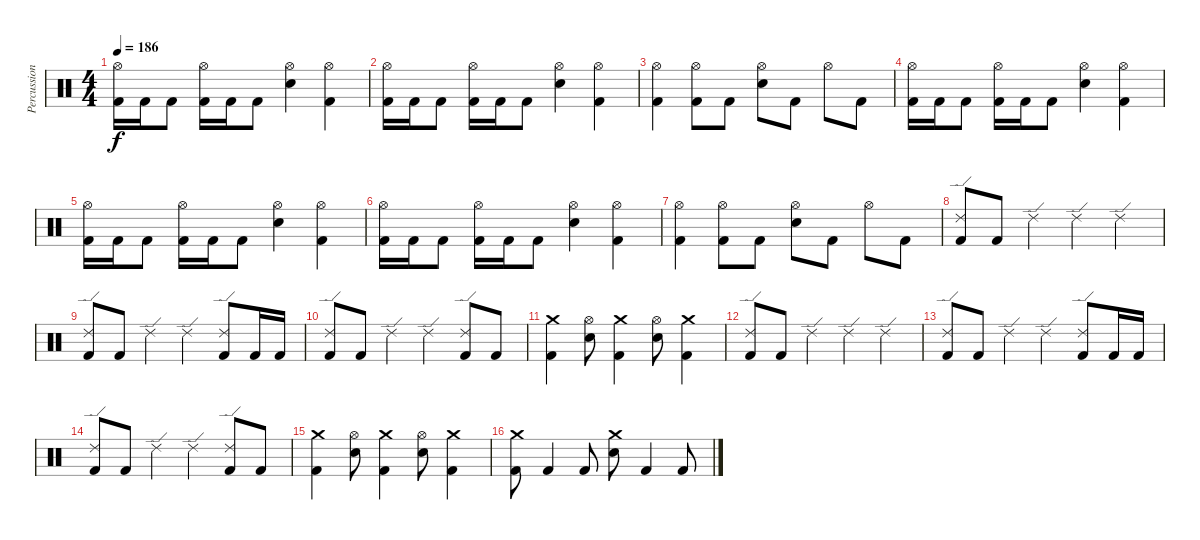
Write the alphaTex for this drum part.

\track ("Percussion" "Percussion") {instrument percussion}
\staff {score}
\articulation defaults
\ts (4 4)
\tempo 186
\clef neutral
\ks c
("Hi-Hat (open)" "Kick (hit) 2").16{dy f} "Kick (hit) 2".16 "Kick (hit) 2".8 ("Hi-Hat (open)" "Kick (hit) 2").16 "Kick (hit) 2".16 "Kick (hit) 2".8 ("Hi-Hat (open)" "Snare (hit) 2").4 ("Hi-Hat (open)" "Kick (hit) 2").4 |
("Hi-Hat (open)" "Kick (hit) 2").16 "Kick (hit) 2".16 "Kick (hit) 2".8 ("Hi-Hat (open)" "Kick (hit) 2").16 "Kick (hit) 2".16 "Kick (hit) 2".8 ("Hi-Hat (open)" "Snare (hit) 2").4 ("Hi-Hat (open)" "Kick (hit) 2").4 |
("Hi-Hat (open)" "Kick (hit) 2").4 ("Hi-Hat (open)" "Kick (hit) 2").8 "Kick (hit) 2".8 ("Hi-Hat (open)" "Snare (hit) 2").8 "Kick (hit) 2".8 "Hi-Hat (open)".8 "Kick (hit) 2".8 |
("Hi-Hat (open)" "Kick (hit) 2").16 "Kick (hit) 2".16 "Kick (hit) 2".8 ("Hi-Hat (open)" "Kick (hit) 2").16 "Kick (hit) 2".16 "Kick (hit) 2".8 ("Hi-Hat (open)" "Snare (hit) 2").4 ("Hi-Hat (open)" "Kick (hit) 2").4 |
("Hi-Hat (open)" "Kick (hit) 2").16 "Kick (hit) 2".16 "Kick (hit) 2".8 ("Hi-Hat (open)" "Kick (hit) 2").16 "Kick (hit) 2".16 "Kick (hit) 2".8 ("Hi-Hat (open)" "Snare (hit) 2").4 ("Hi-Hat (open)" "Kick (hit) 2").4 |
("Hi-Hat (open)" "Kick (hit) 2").16 "Kick (hit) 2".16 "Kick (hit) 2".8 ("Hi-Hat (open)" "Kick (hit) 2").16 "Kick (hit) 2".16 "Kick (hit) 2".8 ("Hi-Hat (open)" "Snare (hit) 2").4 ("Hi-Hat (open)" "Kick (hit) 2").4 |
("Hi-Hat (open)" "Kick (hit) 2").4 ("Hi-Hat (open)" "Kick (hit) 2").8 "Kick (hit) 2".8 ("Hi-Hat (open)" "Snare (hit) 2").8 "Kick (hit) 2".8 "Hi-Hat (open)".8 "Kick (hit) 2".8 |
("Ride (edge) 2" "Kick (hit) 2").8 "Kick (hit) 2".8 "Ride (edge) 2".4 "Ride (edge) 2".4 "Ride (edge) 2".4 |
("Ride (edge) 2" "Kick (hit) 2").8 "Kick (hit) 2".8 "Ride (edge) 2".4 "Ride (edge) 2".4 ("Ride (edge) 2" "Kick (hit) 2").8 "Kick (hit) 2".16 "Kick (hit) 2".16 |
("Ride (edge) 2" "Kick (hit) 2").8 "Kick (hit) 2".8 "Ride (edge) 2".4 "Ride (edge) 2".4 ("Ride (edge) 2" "Kick (hit) 2").8 "Kick (hit) 2".8 |
("Crash medium (hit)" "Kick (hit) 2").4 ("Hi-Hat (open)" "Snare (hit) 2").8 ("Crash medium (hit)" "Kick (hit) 2").4 ("Hi-Hat (open)" "Snare (hit) 2").8 ("Crash medium (hit)" "Kick (hit) 2").4 |
("Ride (edge) 2" "Kick (hit) 2").8 "Kick (hit) 2".8 "Ride (edge) 2".4 "Ride (edge) 2".4 "Ride (edge) 2".4 |
("Ride (edge) 2" "Kick (hit) 2").8 "Kick (hit) 2".8 "Ride (edge) 2".4 "Ride (edge) 2".4 ("Ride (edge) 2" "Kick (hit) 2").8 "Kick (hit) 2".16 "Kick (hit) 2".16 |
("Ride (edge) 2" "Kick (hit) 2").8 "Kick (hit) 2".8 "Ride (edge) 2".4 "Ride (edge) 2".4 ("Ride (edge) 2" "Kick (hit) 2").8 "Kick (hit) 2".8 |
("Crash medium (hit)" "Kick (hit) 2").4 ("Hi-Hat (open)" "Snare (hit) 2").8 ("Crash medium (hit)" "Kick (hit) 2").4 ("Hi-Hat (open)" "Snare (hit) 2").8 ("Crash medium (hit)" "Kick (hit) 2").4 |
("Crash medium (hit)" "Kick (hit) 2").8 "Kick (hit) 2".4 "Kick (hit) 2".8 ("Crash medium (hit)" "Snare (hit) 2").8 "Kick (hit) 2".4 "Kick (hit) 2".8
